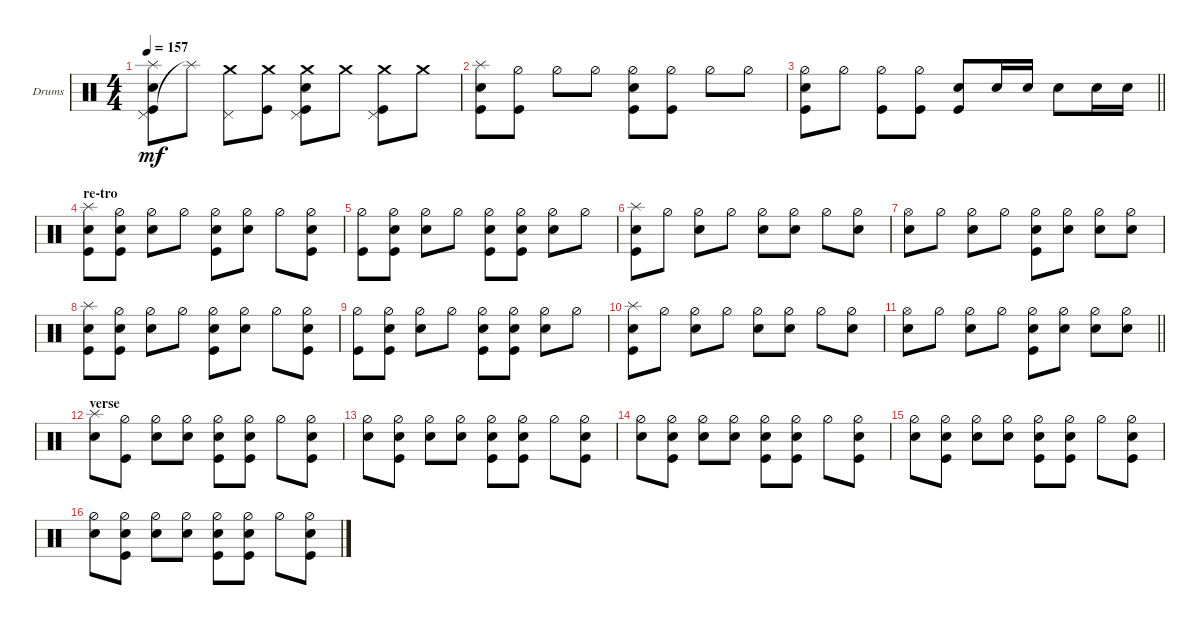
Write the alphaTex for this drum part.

\bracketExtendMode groupsimilarinstruments
\firstSystemTrackNameOrientation horizontal
\otherSystemsTrackNameOrientation horizontal
\track ("Drumkit" "Drums") {instrument percussion}
\staff {score}
\articulation defaults
\ts (4 4)
\tempo 157
\clef neutral
\scale
0.333333
\ks c
("Kick (hit)" "Snare (hit) 2" "Pedal Hi-Hat (hit)" "Splash (hit)").8{dy mf} "Splash (hit)"{t}.8 ("Pedal Hi-Hat (hit)" "Crash medium (hit)").8 ("Kick (hit)" "Crash medium (hit)").8 ("Kick (hit)" "Snare (hit) 2" "Pedal Hi-Hat (hit)" "Crash medium (hit)").8 "Crash medium (hit)".8 ("Pedal Hi-Hat (hit)" "Kick (hit)" "Crash medium (hit)").8 "Crash medium (hit)".8 |
\scale
0.333333 ("Kick (hit)" "Snare (hit) 2" "Splash (hit)").8 ("Kick (hit)" "Hi-Hat (half)").8 "Hi-Hat (half)".8 "Hi-Hat (half)".8 ("Kick (hit)" "Snare (hit) 2" "Hi-Hat (half)").8 ("Kick (hit)" "Hi-Hat (half)").8 "Hi-Hat (half)".8 "Hi-Hat (half)".8 |
\scale
0.333333
\barLineRight lightlight
("Kick (hit)" "Snare (hit) 2" "Hi-Hat (half)").8 "Hi-Hat (half)".8 ("Kick (hit)" "Hi-Hat (half)").8 ("Kick (hit)" "Hi-Hat (half)").8 ("Snare (hit) 2" "Kick (hit)").8 "Snare (hit) 2".16 "Snare (hit) 2".16 "Snare (hit) 2".8 "Snare (hit) 2".16 "Snare (hit) 2".16 |
\section ("" "re-tro")
\scale
0.333333 ("Kick (hit)" "Splash (hit)" "Snare (hit) 2").8 ("Kick (hit)" "Snare (hit) 2" "Hi-Hat (half)").8 ("Hi-Hat (half)" "Snare (hit) 2").8 "Hi-Hat (half)".8 ("Kick (hit)" "Snare (hit) 2" "Hi-Hat (half)").8 ("Hi-Hat (half)" "Snare (hit) 2").8 "Hi-Hat (half)".8 ("Snare (hit) 2" "Hi-Hat (half)" "Kick (hit)").8 |
\scale
0.333333 ("Kick (hit)" "Hi-Hat (half)").8 ("Snare (hit) 2" "Kick (hit)" "Hi-Hat (half)").8 ("Hi-Hat (half)" "Snare (hit) 2").8 "Hi-Hat (half)".8 ("Kick (hit)" "Snare (hit) 2" "Hi-Hat (half)").8 ("Snare (hit) 2" "Kick (hit)" "Hi-Hat (half)").8 ("Hi-Hat (half)" "Snare (hit) 2").8 "Hi-Hat (half)".8 |
\scale
0.333333 ("Snare (hit) 2" "Kick (hit)" "Splash (hit)").8 "Hi-Hat (half)".8 ("Snare (hit) 2" "Hi-Hat (half)").8 "Hi-Hat (half)".8 ("Hi-Hat (half)" "Snare (hit) 2").8 ("Hi-Hat (half)" "Snare (hit) 2").8 "Hi-Hat (half)".8 ("Hi-Hat (half)" "Snare (hit) 2").8 |
\scale
0.333333 ("Hi-Hat (open)" "Snare (hit) 2").8 "Hi-Hat (half)".8 ("Hi-Hat (half)" "Snare (hit) 2").8 "Hi-Hat (half)".8 ("Kick (hit)" "Hi-Hat (half)" "Snare (hit) 2").8 ("Hi-Hat (half)" "Snare (hit) 2").8 ("Hi-Hat (half)" "Snare (hit) 2").8 ("Hi-Hat (half)" "Snare (hit) 2").8 |
\scale
0.333333 ("Kick (hit)" "Splash (hit)" "Snare (hit) 2").8 ("Kick (hit)" "Snare (hit) 2" "Hi-Hat (half)").8 ("Hi-Hat (half)" "Snare (hit) 2").8 "Hi-Hat (half)".8 ("Kick (hit)" "Snare (hit) 2" "Hi-Hat (half)").8 ("Hi-Hat (half)" "Snare (hit) 2").8 "Hi-Hat (half)".8 ("Snare (hit) 2" "Hi-Hat (half)" "Kick (hit)").8 |
\scale
0.333333 ("Kick (hit)" "Hi-Hat (half)").8 ("Snare (hit) 2" "Kick (hit)" "Hi-Hat (half)").8 ("Hi-Hat (half)" "Snare (hit) 2").8 "Hi-Hat (half)".8 ("Kick (hit)" "Snare (hit) 2" "Hi-Hat (half)").8 ("Snare (hit) 2" "Kick (hit)" "Hi-Hat (half)").8 ("Hi-Hat (half)" "Snare (hit) 2").8 "Hi-Hat (half)".8 |
\scale
0.333333 ("Snare (hit) 2" "Kick (hit)" "Splash (hit)").8 "Hi-Hat (half)".8 ("Snare (hit) 2" "Hi-Hat (half)").8 "Hi-Hat (half)".8 ("Hi-Hat (half)" "Snare (hit) 2").8 ("Hi-Hat (half)" "Snare (hit) 2").8 "Hi-Hat (half)".8 ("Hi-Hat (half)" "Snare (hit) 2").8 |
\scale
0.333333
\barLineRight lightlight
("Hi-Hat (open)" "Snare (hit) 2").8 "Hi-Hat (half)".8 ("Hi-Hat (half)" "Snare (hit) 2").8 "Hi-Hat (half)".8 ("Kick (hit)" "Hi-Hat (half)" "Snare (hit) 2").8 ("Hi-Hat (half)" "Snare (hit) 2").8 ("Hi-Hat (half)" "Snare (hit) 2").8 ("Hi-Hat (half)" "Snare (hit) 2").8 |
\section ("" "verse")
\scale
0.333333 ("Splash (hit)" "Snare (hit) 2").8 ("Hi-Hat (half)" "Kick (hit)").8 ("Hi-Hat (half)" "Snare (hit) 2").8 ("Hi-Hat (half)" "Snare (hit) 2").8 ("Hi-Hat (half)" "Snare (hit) 2" "Kick (hit)").8 ("Hi-Hat (half)" "Snare (hit) 2" "Kick (hit)").8 "Hi-Hat (half)".8 ("Hi-Hat (half)" "Snare (hit) 2" "Kick (hit)").8 |
\scale
0.333333 ("Hi-Hat (half)" "Snare (hit) 2").8 ("Hi-Hat (half)" "Snare (hit) 2" "Kick (hit)").8 ("Hi-Hat (half)" "Snare (hit) 2").8 ("Hi-Hat (half)" "Snare (hit) 2").8 ("Hi-Hat (half)" "Snare (hit) 2" "Kick (hit)").8 ("Hi-Hat (half)" "Snare (hit) 2" "Kick (hit)").8 "Hi-Hat (half)".8 ("Hi-Hat (half)" "Snare (hit) 2" "Kick (hit)").8 |
\scale
0.333333 ("Hi-Hat (half)" "Snare (hit) 2").8 ("Hi-Hat (half)" "Snare (hit) 2" "Kick (hit)").8 ("Hi-Hat (half)" "Snare (hit) 2").8 ("Hi-Hat (half)" "Snare (hit) 2").8 ("Hi-Hat (half)" "Snare (hit) 2" "Kick (hit)").8 ("Hi-Hat (half)" "Snare (hit) 2" "Kick (hit)").8 "Hi-Hat (half)".8 ("Hi-Hat (half)" "Snare (hit) 2" "Kick (hit)").8 |
\scale
0.333333 ("Hi-Hat (half)" "Snare (hit) 2").8 ("Hi-Hat (half)" "Snare (hit) 2" "Kick (hit)").8 ("Hi-Hat (half)" "Snare (hit) 2").8 ("Hi-Hat (half)" "Snare (hit) 2").8 ("Hi-Hat (half)" "Snare (hit) 2" "Kick (hit)").8 ("Hi-Hat (half)" "Snare (hit) 2" "Kick (hit)").8 "Hi-Hat (half)".8 ("Hi-Hat (half)" "Snare (hit) 2" "Kick (hit)").8 |
\scale
0.333333 ("Hi-Hat (half)" "Snare (hit) 2").8 ("Hi-Hat (half)" "Snare (hit) 2" "Kick (hit)").8 ("Hi-Hat (half)" "Snare (hit) 2").8 ("Hi-Hat (half)" "Snare (hit) 2").8 ("Hi-Hat (half)" "Snare (hit) 2" "Kick (hit)").8 ("Hi-Hat (half)" "Snare (hit) 2" "Kick (hit)").8 "Hi-Hat (half)".8 ("Hi-Hat (half)" "Snare (hit) 2" "Kick (hit)").8
